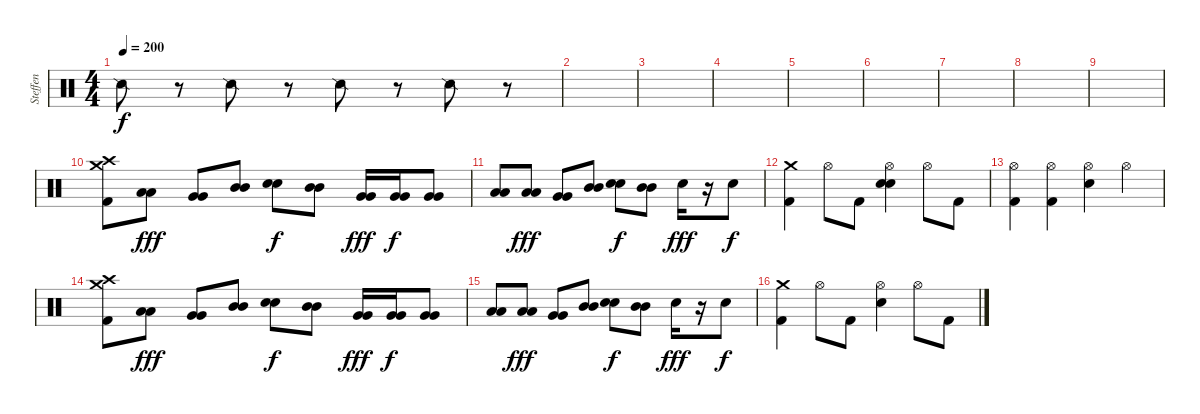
\track ("Steffen" "Steffen") {instrument percussion}
\staff {score}
\articulation defaults
\ts (4 4)
\tempo 200
\clef neutral
\ks c "Snare (side stick) 2".8{dy f}
r.8 "Snare (side stick) 2".8 r.8 "Snare (side stick) 2".8 r.8 "Snare (side stick) 2".8 r.8 |
|
|
|
|
|
|
|
|
("Crash high (hit)" "Crash medium (hit)" "Kick (hit) 2").8 ("Low Tom (hit)" "Low Tom (hit)").8{dy fff} ("Very Low Tom (hit)" "Very Low Tom (hit)").8 ("Mid Tom (hit)" "Mid Tom (hit)").8 ("Electric Snare (hit)" "Electric Snare (hit)").8{dy f} ("Mid Tom (hit)" "Mid Tom (hit)").8 ("Very Low Tom (hit)" "Very Low Tom (hit)").16{dy fff} ("Very Low Tom (hit)" "Very Low Tom (hit)").16{dy f} ("Very Low Tom (hit)" "Very Low Tom (hit)").8 |
("Low Tom (hit)" "Low Tom (hit)").8 ("Low Tom (hit)" "Low Tom (hit)").8{dy fff} ("Very Low Tom (hit)" "Very Low Tom (hit)").8 ("Mid Tom (hit)" "Mid Tom (hit)").8 ("Electric Snare (hit)" "Electric Snare (hit)").8{dy f} ("Mid Tom (hit)" "Mid Tom (hit)").8 "Electric Snare (hit)".16{dy fff} r.16 "Electric Snare (hit)".8{dy f} |
("Crash medium (hit)" "Kick (hit) 2").4 "Hi-Hat (open)".8 "Kick (hit) 2".8 ("Snare (hit)" "Hi-Hat (open)" "Electric Snare (hit)").4 "Hi-Hat (open)".8 "Kick (hit) 2".8 |
("Hi-Hat (open)" "Kick (hit) 2").4 ("Hi-Hat (open)" "Kick (hit) 2").4 ("Hi-Hat (open)" "Electric Snare (hit)").4 "Hi-Hat (open)".4 |
("Crash high (hit)" "Crash medium (hit)" "Kick (hit) 2").8 ("Low Tom (hit)" "Low Tom (hit)").8{dy fff} ("Very Low Tom (hit)" "Very Low Tom (hit)").8 ("Mid Tom (hit)" "Mid Tom (hit)").8 ("Electric Snare (hit)" "Electric Snare (hit)").8{dy f} ("Mid Tom (hit)" "Mid Tom (hit)").8 ("Very Low Tom (hit)" "Very Low Tom (hit)").16{dy fff} ("Very Low Tom (hit)" "Very Low Tom (hit)").16{dy f} ("Very Low Tom (hit)" "Very Low Tom (hit)").8 |
("Low Tom (hit)" "Low Tom (hit)").8 ("Low Tom (hit)" "Low Tom (hit)").8{dy fff} ("Very Low Tom (hit)" "Very Low Tom (hit)").8 ("Mid Tom (hit)" "Mid Tom (hit)").8 ("Electric Snare (hit)" "Electric Snare (hit)").8{dy f} ("Mid Tom (hit)" "Mid Tom (hit)").8 "Electric Snare (hit)".16{dy fff} r.16 "Electric Snare (hit)".8{dy f} |
("Crash medium (hit)" "Kick (hit) 2").4 "Hi-Hat (open)".8 "Kick (hit) 2".8 ("Hi-Hat (open)" "Electric Snare (hit)").4 "Hi-Hat (open)".8 "Kick (hit) 2".8
